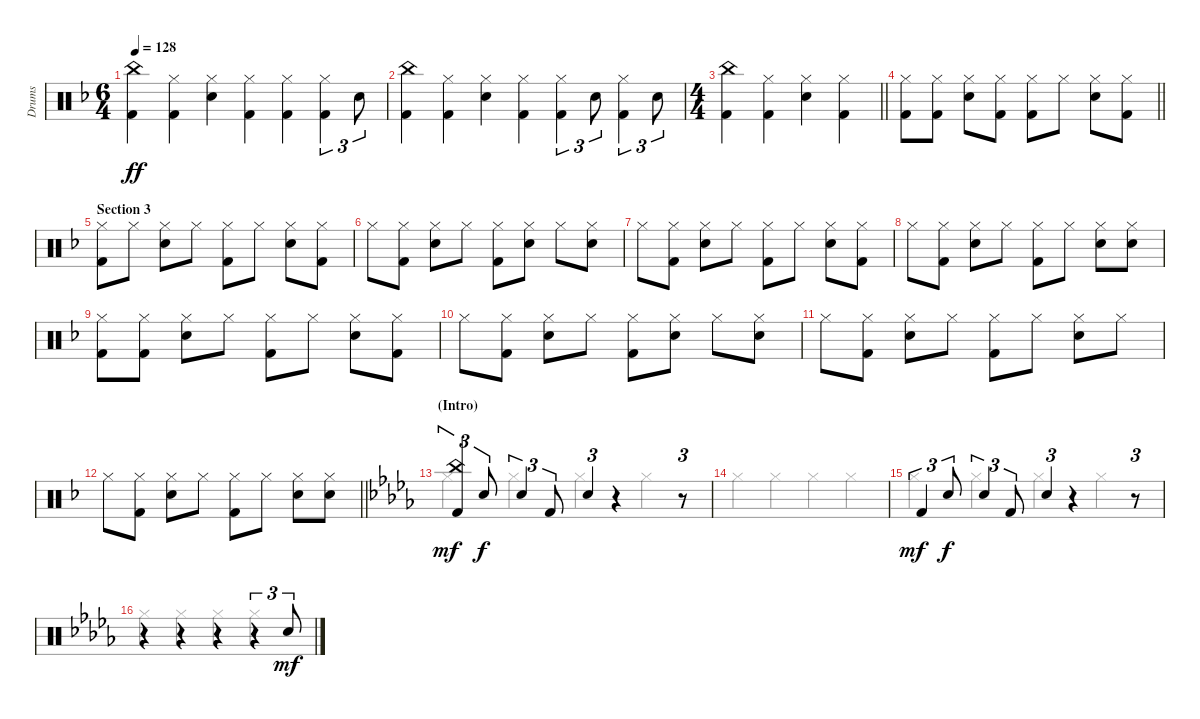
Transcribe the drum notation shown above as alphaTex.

\track ("Drums" "Drums") {instrument percussion}
\staff {score}
\articulation defaults
\voice
\ts (6 4)
\tempo 128
\clef neutral
\ks f
("China (hit)" "Kick (hit) 2").4{dy ff} ("Hi-Hat (closed)" "Kick (hit) 2").4 ("Hi-Hat (closed)" "Snare (hit) 2").4 ("Hi-Hat (closed)" "Kick (hit) 2").4 ("Hi-Hat (closed)" "Kick (hit) 2").4 ("Hi-Hat (closed)" "Kick (hit) 2").4{tu (3 2)} "Snare (hit) 2".8{tu (3 2)} |
("China (hit)" "Kick (hit) 2").4 ("Hi-Hat (closed)" "Kick (hit) 2").4 ("Hi-Hat (closed)" "Snare (hit) 2").4 ("Hi-Hat (closed)" "Kick (hit) 2").4 ("Hi-Hat (closed)" "Kick (hit) 2").4{tu (3 2)} "Snare (hit) 2".8{tu (3 2)} ("Hi-Hat (closed)" "Kick (hit) 2").4{tu (3 2)} "Snare (hit) 2".8{tu (3 2)} |
\ts (4 4)
\barLineRight lightlight
("China (hit)" "Kick (hit) 2").4 ("Hi-Hat (closed)" "Kick (hit) 2").4 ("Hi-Hat (closed)" "Snare (hit) 2").4 ("Hi-Hat (closed)" "Kick (hit) 2").4 |
\section ("" "")
\barLineRight lightlight
("Hi-Hat (closed)" "Kick (hit) 2").8 ("Hi-Hat (closed)" "Kick (hit) 2").8 ("Hi-Hat (closed)" "Snare (hit) 2").8 ("Hi-Hat (closed)" "Kick (hit) 2").8 ("Hi-Hat (closed)" "Kick (hit) 2").8 "Hi-Hat (closed)".8 ("Hi-Hat (closed)" "Snare (hit) 2").8 ("Hi-Hat (closed)" "Kick (hit) 2").8 |
\section ("" "Section 3")
("Hi-Hat (closed)" "Kick (hit) 2").8 "Hi-Hat (closed)".8 ("Hi-Hat (closed)" "Snare (hit) 2").8 "Hi-Hat (closed)".8 ("Hi-Hat (closed)" "Kick (hit) 2").8 "Hi-Hat (closed)".8 ("Hi-Hat (closed)" "Snare (hit) 2").8 ("Hi-Hat (closed)" "Kick (hit) 2").8 |
"Hi-Hat (closed)".8 ("Hi-Hat (closed)" "Kick (hit) 2").8 ("Hi-Hat (closed)" "Snare (hit) 2").8 "Hi-Hat (closed)".8 ("Hi-Hat (closed)" "Kick (hit) 2").8 ("Hi-Hat (closed)" "Snare (hit) 2").8 "Hi-Hat (closed)".8 ("Hi-Hat (closed)" "Snare (hit) 2").8 |
"Hi-Hat (closed)".8 ("Hi-Hat (closed)" "Kick (hit) 2").8 ("Hi-Hat (closed)" "Snare (hit) 2").8 "Hi-Hat (closed)".8 ("Hi-Hat (closed)" "Kick (hit) 2").8 "Hi-Hat (closed)".8 ("Hi-Hat (closed)" "Snare (hit) 2").8 ("Hi-Hat (closed)" "Kick (hit) 2").8 |
"Hi-Hat (closed)".8 ("Hi-Hat (closed)" "Kick (hit) 2").8 ("Hi-Hat (closed)" "Snare (hit) 2").8 "Hi-Hat (closed)".8 ("Hi-Hat (closed)" "Kick (hit) 2").8 "Hi-Hat (closed)".8 ("Hi-Hat (closed)" "Snare (hit) 2").8 ("Hi-Hat (closed)" "Snare (hit) 2").8 |
("Hi-Hat (closed)" "Kick (hit) 2").8 ("Hi-Hat (closed)" "Kick (hit) 2").8 ("Hi-Hat (closed)" "Snare (hit) 2").8 "Hi-Hat (closed)".8 ("Hi-Hat (closed)" "Kick (hit) 2").8 "Hi-Hat (closed)".8 ("Hi-Hat (closed)" "Snare (hit) 2").8 ("Hi-Hat (closed)" "Kick (hit) 2").8 |
"Hi-Hat (closed)".8 ("Hi-Hat (closed)" "Kick (hit) 2").8 ("Hi-Hat (closed)" "Snare (hit) 2").8 "Hi-Hat (closed)".8 ("Hi-Hat (closed)" "Kick (hit) 2").8 ("Hi-Hat (closed)" "Snare (hit) 2").8 "Hi-Hat (closed)".8 ("Hi-Hat (closed)" "Snare (hit) 2").8 |
"Hi-Hat (closed)".8 ("Hi-Hat (closed)" "Kick (hit) 2").8 ("Hi-Hat (closed)" "Snare (hit) 2").8 "Hi-Hat (closed)".8 ("Hi-Hat (closed)" "Kick (hit) 2").8 "Hi-Hat (closed)".8 ("Hi-Hat (closed)" "Snare (hit) 2").8 "Hi-Hat (closed)".8 |
\barLineRight lightlight "Hi-Hat (closed)".8
("Hi-Hat (closed)" "Kick (hit) 2").8 ("Hi-Hat (closed)" "Snare (hit) 2").8 "Hi-Hat (closed)".8 ("Hi-Hat (closed)" "Kick (hit) 2").8 "Hi-Hat (closed)".8 ("Hi-Hat (closed)" "Snare (hit) 2").8 ("Hi-Hat (closed)" "Snare (hit) 2").8 |
\section ("" "(Intro)")
\ks db
("China (hit)" "Kick (hit) 2").4{tu (3 2) dy mf} "Snare (hit) 2".8{tu (3 2) dy f} "Snare (hit) 2".4{tu (3 2)} "Kick (hit) 2".8{tu (3 2)} "Snare (hit) 2".4{tu (3 2)} r.4 r.8{tu (3 2)} |
|
"Kick (hit) 2".4{tu (3 2) dy mf} "Snare (hit) 2".8{tu (3 2) dy f} "Snare (hit) 2".4{tu (3 2)} "Kick (hit) 2".8{tu (3 2)} "Snare (hit) 2".4{tu (3 2)} r.4 r.8{tu (3 2)} |
r.4 r.4 r.4 r.4{tu (3 2)} "Snare (hit) 2".8{tu (3 2) dy mf}
\voice
\clef neutral
\ottava regular
\simile none
\ks f
|
|
\barLineRight lightlight
|
\barLineRight lightlight
|
|
|
|
|
|
|
|
\barLineRight lightlight
|
\ks db "Hi-Hat (closed)".4 "Hi-Hat (closed)".4 "Hi-Hat (closed)".4 "Hi-Hat (closed)".4
|
"Hi-Hat (closed)".4 "Hi-Hat (closed)".4 "Hi-Hat (closed)".4 "Hi-Hat (closed)".4 |
"Hi-Hat (closed)".4 "Hi-Hat (closed)".4 "Hi-Hat (closed)".4 "Hi-Hat (closed)".4 |
"Hi-Hat (closed)".4 "Hi-Hat (closed)".4 "Hi-Hat (closed)".4 "Hi-Hat (closed)".4
